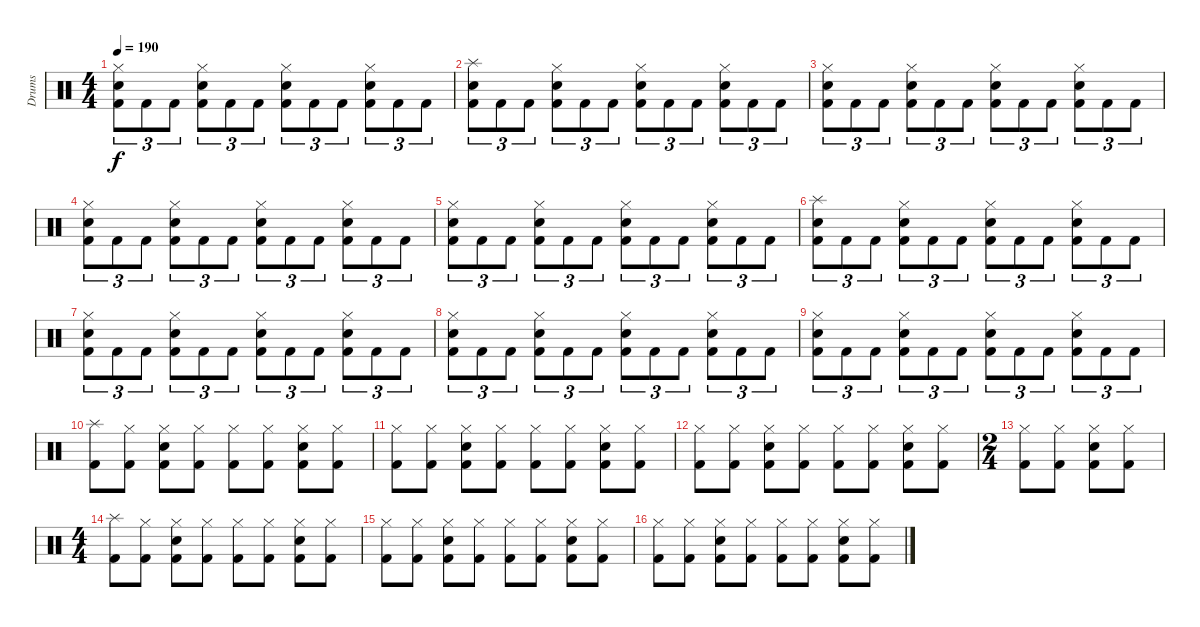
\track ("Drums" "Drums") {instrument percussion}
\staff {score}
\articulation defaults
\ts (4 4)
\tempo 190
\clef neutral
\ks c
("Kick (hit) 2" "Electric Snare (hit)" "Hi-Hat (closed)").8{tu (3 2) dy f} "Kick (hit) 2".8{tu (3 2)} "Kick (hit) 2".8{tu (3 2)} ("Kick (hit) 2" "Electric Snare (hit)" "Hi-Hat (closed)").8{tu (3 2)} "Kick (hit) 2".8{tu (3 2)} "Kick (hit) 2".8{tu (3 2)} ("Kick (hit) 2" "Electric Snare (hit)" "Hi-Hat (closed)").8{tu (3 2)} "Kick (hit) 2".8{tu (3 2)} "Kick (hit) 2".8{tu (3 2)} ("Kick (hit) 2" "Electric Snare (hit)" "Hi-Hat (closed)").8{tu (3 2)} "Kick (hit) 2".8{tu (3 2)} "Kick (hit) 2".8{tu (3 2)} |
("Kick (hit) 2" "Electric Snare (hit)" "Splash (hit)").8{tu (3 2)} "Kick (hit) 2".8{tu (3 2)} "Kick (hit) 2".8{tu (3 2)} ("Kick (hit) 2" "Electric Snare (hit)" "Hi-Hat (closed)").8{tu (3 2)} "Kick (hit) 2".8{tu (3 2)} "Kick (hit) 2".8{tu (3 2)} ("Kick (hit) 2" "Electric Snare (hit)" "Hi-Hat (closed)").8{tu (3 2)} "Kick (hit) 2".8{tu (3 2)} "Kick (hit) 2".8{tu (3 2)} ("Kick (hit) 2" "Electric Snare (hit)" "Hi-Hat (closed)").8{tu (3 2)} "Kick (hit) 2".8{tu (3 2)} "Kick (hit) 2".8{tu (3 2)} |
("Kick (hit) 2" "Electric Snare (hit)" "Hi-Hat (closed)").8{tu (3 2)} "Kick (hit) 2".8{tu (3 2)} "Kick (hit) 2".8{tu (3 2)} ("Kick (hit) 2" "Electric Snare (hit)" "Hi-Hat (closed)").8{tu (3 2)} "Kick (hit) 2".8{tu (3 2)} "Kick (hit) 2".8{tu (3 2)} ("Kick (hit) 2" "Electric Snare (hit)" "Hi-Hat (closed)").8{tu (3 2)} "Kick (hit) 2".8{tu (3 2)} "Kick (hit) 2".8{tu (3 2)} ("Kick (hit) 2" "Electric Snare (hit)" "Hi-Hat (closed)").8{tu (3 2)} "Kick (hit) 2".8{tu (3 2)} "Kick (hit) 2".8{tu (3 2)} |
("Kick (hit) 2" "Electric Snare (hit)" "Hi-Hat (closed)").8{tu (3 2)} "Kick (hit) 2".8{tu (3 2)} "Kick (hit) 2".8{tu (3 2)} ("Kick (hit) 2" "Electric Snare (hit)" "Hi-Hat (closed)").8{tu (3 2)} "Kick (hit) 2".8{tu (3 2)} "Kick (hit) 2".8{tu (3 2)} ("Kick (hit) 2" "Electric Snare (hit)" "Hi-Hat (closed)").8{tu (3 2)} "Kick (hit) 2".8{tu (3 2)} "Kick (hit) 2".8{tu (3 2)} ("Kick (hit) 2" "Electric Snare (hit)" "Hi-Hat (closed)").8{tu (3 2)} "Kick (hit) 2".8{tu (3 2)} "Kick (hit) 2".8{tu (3 2)} |
("Kick (hit) 2" "Electric Snare (hit)" "Hi-Hat (closed)").8{tu (3 2)} "Kick (hit) 2".8{tu (3 2)} "Kick (hit) 2".8{tu (3 2)} ("Kick (hit) 2" "Electric Snare (hit)" "Hi-Hat (closed)").8{tu (3 2)} "Kick (hit) 2".8{tu (3 2)} "Kick (hit) 2".8{tu (3 2)} ("Kick (hit) 2" "Electric Snare (hit)" "Hi-Hat (closed)").8{tu (3 2)} "Kick (hit) 2".8{tu (3 2)} "Kick (hit) 2".8{tu (3 2)} ("Kick (hit) 2" "Electric Snare (hit)" "Hi-Hat (closed)").8{tu (3 2)} "Kick (hit) 2".8{tu (3 2)} "Kick (hit) 2".8{tu (3 2)} |
("Kick (hit) 2" "Electric Snare (hit)" "Splash (hit)").8{tu (3 2)} "Kick (hit) 2".8{tu (3 2)} "Kick (hit) 2".8{tu (3 2)} ("Kick (hit) 2" "Electric Snare (hit)" "Hi-Hat (closed)").8{tu (3 2)} "Kick (hit) 2".8{tu (3 2)} "Kick (hit) 2".8{tu (3 2)} ("Kick (hit) 2" "Electric Snare (hit)" "Hi-Hat (closed)").8{tu (3 2)} "Kick (hit) 2".8{tu (3 2)} "Kick (hit) 2".8{tu (3 2)} ("Kick (hit) 2" "Electric Snare (hit)" "Hi-Hat (closed)").8{tu (3 2)} "Kick (hit) 2".8{tu (3 2)} "Kick (hit) 2".8{tu (3 2)} |
("Kick (hit) 2" "Electric Snare (hit)" "Hi-Hat (closed)").8{tu (3 2)} "Kick (hit) 2".8{tu (3 2)} "Kick (hit) 2".8{tu (3 2)} ("Kick (hit) 2" "Electric Snare (hit)" "Hi-Hat (closed)").8{tu (3 2)} "Kick (hit) 2".8{tu (3 2)} "Kick (hit) 2".8{tu (3 2)} ("Kick (hit) 2" "Electric Snare (hit)" "Hi-Hat (closed)").8{tu (3 2)} "Kick (hit) 2".8{tu (3 2)} "Kick (hit) 2".8{tu (3 2)} ("Kick (hit) 2" "Electric Snare (hit)" "Hi-Hat (closed)").8{tu (3 2)} "Kick (hit) 2".8{tu (3 2)} "Kick (hit) 2".8{tu (3 2)} |
("Kick (hit) 2" "Electric Snare (hit)" "Hi-Hat (closed)").8{tu (3 2)} "Kick (hit) 2".8{tu (3 2)} "Kick (hit) 2".8{tu (3 2)} ("Kick (hit) 2" "Electric Snare (hit)" "Hi-Hat (closed)").8{tu (3 2)} "Kick (hit) 2".8{tu (3 2)} "Kick (hit) 2".8{tu (3 2)} ("Kick (hit) 2" "Electric Snare (hit)" "Hi-Hat (closed)").8{tu (3 2)} "Kick (hit) 2".8{tu (3 2)} "Kick (hit) 2".8{tu (3 2)} ("Kick (hit) 2" "Electric Snare (hit)" "Hi-Hat (closed)").8{tu (3 2)} "Kick (hit) 2".8{tu (3 2)} "Kick (hit) 2".8{tu (3 2)} |
("Kick (hit) 2" "Electric Snare (hit)" "Hi-Hat (closed)").8{tu (3 2)} "Kick (hit) 2".8{tu (3 2)} "Kick (hit) 2".8{tu (3 2)} ("Kick (hit) 2" "Electric Snare (hit)" "Hi-Hat (closed)").8{tu (3 2)} "Kick (hit) 2".8{tu (3 2)} "Kick (hit) 2".8{tu (3 2)} ("Kick (hit) 2" "Electric Snare (hit)" "Hi-Hat (closed)").8{tu (3 2)} "Kick (hit) 2".8{tu (3 2)} "Kick (hit) 2".8{tu (3 2)} ("Kick (hit) 2" "Electric Snare (hit)" "Hi-Hat (closed)").8{tu (3 2)} "Kick (hit) 2".8{tu (3 2)} "Kick (hit) 2".8{tu (3 2)} |
("Kick (hit) 2" "Splash (hit)").8 ("Kick (hit) 2" "Hi-Hat (closed)").8 ("Kick (hit) 2" "Hi-Hat (closed)" "Electric Snare (hit)").8 ("Kick (hit) 2" "Hi-Hat (closed)").8 ("Kick (hit) 2" "Hi-Hat (closed)").8 ("Kick (hit) 2" "Hi-Hat (closed)").8 ("Kick (hit) 2" "Hi-Hat (closed)" "Electric Snare (hit)").8 ("Kick (hit) 2" "Hi-Hat (closed)").8 |
("Kick (hit) 2" "Hi-Hat (closed)").8 ("Kick (hit) 2" "Hi-Hat (closed)").8 ("Kick (hit) 2" "Hi-Hat (closed)" "Electric Snare (hit)").8 ("Kick (hit) 2" "Hi-Hat (closed)").8 ("Kick (hit) 2" "Hi-Hat (closed)").8 ("Kick (hit) 2" "Hi-Hat (closed)").8 ("Kick (hit) 2" "Hi-Hat (closed)" "Electric Snare (hit)").8 ("Kick (hit) 2" "Hi-Hat (closed)").8 |
("Kick (hit) 2" "Hi-Hat (closed)").8 ("Kick (hit) 2" "Hi-Hat (closed)").8 ("Kick (hit) 2" "Hi-Hat (closed)" "Electric Snare (hit)").8 ("Kick (hit) 2" "Hi-Hat (closed)").8 ("Kick (hit) 2" "Hi-Hat (closed)").8 ("Kick (hit) 2" "Hi-Hat (closed)").8 ("Kick (hit) 2" "Hi-Hat (closed)" "Electric Snare (hit)").8 ("Kick (hit) 2" "Hi-Hat (closed)").8 |
\ts (2 4)
("Kick (hit) 2" "Hi-Hat (closed)").8 ("Kick (hit) 2" "Hi-Hat (closed)").8 ("Kick (hit) 2" "Hi-Hat (closed)" "Electric Snare (hit)").8 ("Kick (hit) 2" "Hi-Hat (closed)").8 |
\ts (4 4)
("Kick (hit) 2" "Splash (hit)").8 ("Kick (hit) 2" "Hi-Hat (closed)").8 ("Kick (hit) 2" "Hi-Hat (closed)" "Electric Snare (hit)").8 ("Kick (hit) 2" "Hi-Hat (closed)").8 ("Kick (hit) 2" "Hi-Hat (closed)").8 ("Kick (hit) 2" "Hi-Hat (closed)").8 ("Kick (hit) 2" "Hi-Hat (closed)" "Electric Snare (hit)").8 ("Kick (hit) 2" "Hi-Hat (closed)").8 |
("Kick (hit) 2" "Hi-Hat (closed)").8 ("Kick (hit) 2" "Hi-Hat (closed)").8 ("Kick (hit) 2" "Hi-Hat (closed)" "Electric Snare (hit)").8 ("Kick (hit) 2" "Hi-Hat (closed)").8 ("Kick (hit) 2" "Hi-Hat (closed)").8 ("Kick (hit) 2" "Hi-Hat (closed)").8 ("Kick (hit) 2" "Hi-Hat (closed)" "Electric Snare (hit)").8 ("Kick (hit) 2" "Hi-Hat (closed)").8 |
("Kick (hit) 2" "Hi-Hat (closed)").8 ("Kick (hit) 2" "Hi-Hat (closed)").8 ("Kick (hit) 2" "Hi-Hat (closed)" "Electric Snare (hit)").8 ("Kick (hit) 2" "Hi-Hat (closed)").8 ("Kick (hit) 2" "Hi-Hat (closed)").8 ("Kick (hit) 2" "Hi-Hat (closed)").8 ("Kick (hit) 2" "Hi-Hat (closed)" "Electric Snare (hit)").8 ("Kick (hit) 2" "Hi-Hat (closed)").8
